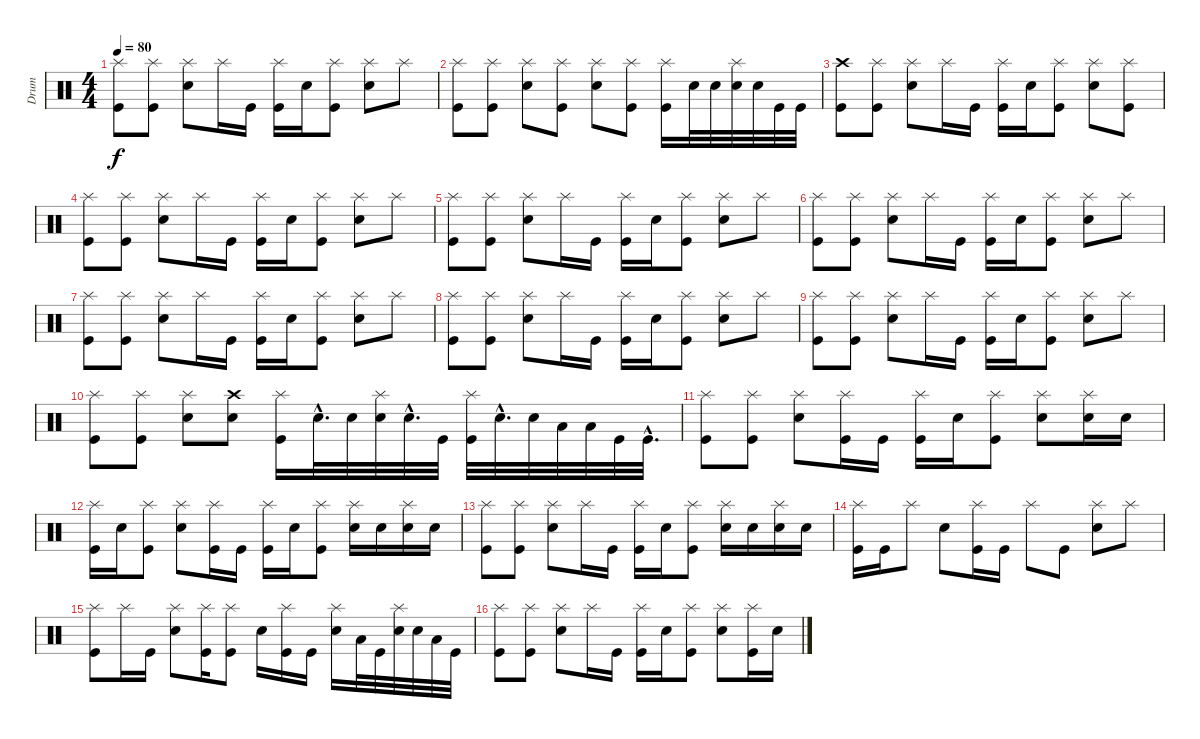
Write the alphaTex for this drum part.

\track ("Drum" "Drum") {instrument percussion}
\staff {score}
\articulation defaults
\ts (4 4)
\tempo 80
\clef neutral
\ks c
("Splash (hit)" "Kick (hit)").8{dy f} ("Splash (hit)" "Kick (hit)").8 ("Splash (hit)" "Electric Snare (hit)").8 "Splash (hit)".16 "Kick (hit)".16 ("Splash (hit)" "Kick (hit)").16 "Electric Snare (hit)".16 ("Splash (hit)" "Kick (hit)").8 ("Splash (hit)" "Electric Snare (hit)").8 "Splash (hit)".8 |
("Splash (hit)" "Kick (hit)").8 ("Splash (hit)" "Kick (hit)").8 ("Splash (hit)" "Electric Snare (hit)").8 ("Splash (hit)" "Kick (hit)").8 ("Splash (hit)" "Electric Snare (hit)").8 ("Splash (hit)" "Kick (hit)").8 ("Splash (hit)" "Kick (hit)").16 "Electric Snare (hit)".32 "Electric Snare (hit)".32 ("Splash (hit)" "Electric Snare (hit)").32 "Electric Snare (hit)".32 "Kick (hit)".32 "Kick (hit)".32 |
("Crash high (hit)" "Kick (hit)").8 ("Splash (hit)" "Kick (hit)").8 ("Splash (hit)" "Electric Snare (hit)").8 "Splash (hit)".16 "Kick (hit)".16 ("Splash (hit)" "Kick (hit)").16 "Electric Snare (hit)".16 ("Splash (hit)" "Kick (hit)").8 ("Splash (hit)" "Electric Snare (hit)").8 ("Splash (hit)" "Kick (hit)").8 |
("Splash (hit)" "Kick (hit)").8 ("Splash (hit)" "Kick (hit)").8 ("Splash (hit)" "Electric Snare (hit)").8 "Splash (hit)".16 "Kick (hit)".16 ("Splash (hit)" "Kick (hit)").16 "Electric Snare (hit)".16 ("Splash (hit)" "Kick (hit)").8 ("Splash (hit)" "Electric Snare (hit)").8 "Splash (hit)".8 |
("Splash (hit)" "Kick (hit)").8 ("Splash (hit)" "Kick (hit)").8 ("Splash (hit)" "Electric Snare (hit)").8 "Splash (hit)".16 "Kick (hit)".16 ("Splash (hit)" "Kick (hit)").16 "Electric Snare (hit)".16 ("Splash (hit)" "Kick (hit)").8 ("Splash (hit)" "Electric Snare (hit)").8 "Splash (hit)".8 |
("Splash (hit)" "Kick (hit)").8 ("Splash (hit)" "Kick (hit)").8 ("Splash (hit)" "Electric Snare (hit)").8 "Splash (hit)".16 "Kick (hit)".16 ("Splash (hit)" "Kick (hit)").16 "Electric Snare (hit)".16 ("Splash (hit)" "Kick (hit)").8 ("Splash (hit)" "Electric Snare (hit)").8 "Splash (hit)".8 |
("Splash (hit)" "Kick (hit)").8 ("Splash (hit)" "Kick (hit)").8 ("Splash (hit)" "Electric Snare (hit)").8 "Splash (hit)".16 "Kick (hit)".16 ("Splash (hit)" "Kick (hit)").16 "Electric Snare (hit)".16 ("Splash (hit)" "Kick (hit)").8 ("Splash (hit)" "Electric Snare (hit)").8 "Splash (hit)".8 |
("Splash (hit)" "Kick (hit)").8 ("Splash (hit)" "Kick (hit)").8 ("Splash (hit)" "Electric Snare (hit)").8 "Splash (hit)".16 "Kick (hit)".16 ("Splash (hit)" "Kick (hit)").16 "Electric Snare (hit)".16 ("Splash (hit)" "Kick (hit)").8 ("Splash (hit)" "Electric Snare (hit)").8 "Splash (hit)".8 |
("Splash (hit)" "Kick (hit)").8 ("Splash (hit)" "Kick (hit)").8 ("Splash (hit)" "Electric Snare (hit)").8 "Splash (hit)".16 "Kick (hit)".16 ("Splash (hit)" "Kick (hit)").16 "Electric Snare (hit)".16 ("Splash (hit)" "Kick (hit)").8 ("Splash (hit)" "Electric Snare (hit)").8 "Splash (hit)".8 |
("Splash (hit)" "Kick (hit)").8 ("Splash (hit)" "Kick (hit)").8 ("Splash (hit)" "Electric Snare (hit)").8 ("Crash high (hit)" "Electric Snare (hit)").8 ("Splash (hit)" "Kick (hit)").16 "Electric Snare (hit)"{hac}.32{d} "Electric Snare (hit)".32 ("Splash (hit)" "Electric Snare (hit)").32 "Electric Snare (hit)"{hac}.32{d} "Kick (hit)".32 ("Splash (hit)" "Kick (hit)").32 "Electric Snare (hit)"{hac}.32{d} "Electric Snare (hit)".32 "Low Floor Tom (hit)".32 "Low Floor Tom (hit)".32 "Kick (hit)".32 "Kick (hit)"{hac}.32{d} |
("Splash (hit)" "Kick (hit)").8 ("Splash (hit)" "Kick (hit)").8 ("Splash (hit)" "Electric Snare (hit)").8 ("Splash (hit)" "Kick (hit)").16 "Kick (hit)".16 ("Splash (hit)" "Kick (hit)").16 "Electric Snare (hit)".16 ("Splash (hit)" "Kick (hit)").8 ("Splash (hit)" "Electric Snare (hit)").8 ("Splash (hit)" "Electric Snare (hit)").16 "Electric Snare (hit)".16 |
("Splash (hit)" "Kick (hit)").16 "Electric Snare (hit)".16 ("Splash (hit)" "Kick (hit)").8 ("Splash (hit)" "Electric Snare (hit)").8 ("Splash (hit)" "Kick (hit)").16 "Kick (hit)".16 ("Splash (hit)" "Kick (hit)").16 "Electric Snare (hit)".16 ("Splash (hit)" "Kick (hit)").8 ("Splash (hit)" "Electric Snare (hit)").16 "Electric Snare (hit)".16 ("Splash (hit)" "Electric Snare (hit)").16 "Electric Snare (hit)".16 |
("Splash (hit)" "Kick (hit)").8 ("Splash (hit)" "Kick (hit)").8 ("Splash (hit)" "Electric Snare (hit)").8 "Splash (hit)".16 "Kick (hit)".16 ("Splash (hit)" "Kick (hit)").16 "Electric Snare (hit)".16 ("Splash (hit)" "Kick (hit)").8 ("Splash (hit)" "Electric Snare (hit)").16 "Electric Snare (hit)".16 ("Splash (hit)" "Electric Snare (hit)").16 "Electric Snare (hit)".16 |
("Splash (hit)" "Kick (hit)").16 "Kick (hit)".16 "Splash (hit)".8 "Electric Snare (hit)".8 ("Splash (hit)" "Kick (hit)").16 "Kick (hit)".16 "Splash (hit)".8 "Kick (hit)".8 ("Splash (hit)" "Electric Snare (hit)").8 "Splash (hit)".8 |
("Splash (hit)" "Kick (hit)").8 "Splash (hit)".16 "Kick (hit)".16 ("Splash (hit)" "Electric Snare (hit)").8 ("Splash (hit)" "Kick (hit)").16 ("Splash (hit)" "Kick (hit)").8 "Electric Snare (hit)".16 ("Splash (hit)" "Kick (hit)").16 "Kick (hit)".16 ("Splash (hit)" "Electric Snare (hit)").16 "Low Floor Tom (hit)".32 "Kick (hit)".32 ("Splash (hit)" "Electric Snare (hit)").32 "Electric Snare (hit)".32 "Low Floor Tom (hit)".32 "Kick (hit)".32 |
("Splash (hit)" "Kick (hit)").8 ("Splash (hit)" "Kick (hit)").8 ("Splash (hit)" "Electric Snare (hit)").8 "Splash (hit)".16 "Kick (hit)".16 ("Splash (hit)" "Kick (hit)").16 "Electric Snare (hit)".16 ("Splash (hit)" "Kick (hit)").8 ("Splash (hit)" "Electric Snare (hit)").8 ("Splash (hit)" "Kick (hit)").16 "Electric Snare (hit)".16
